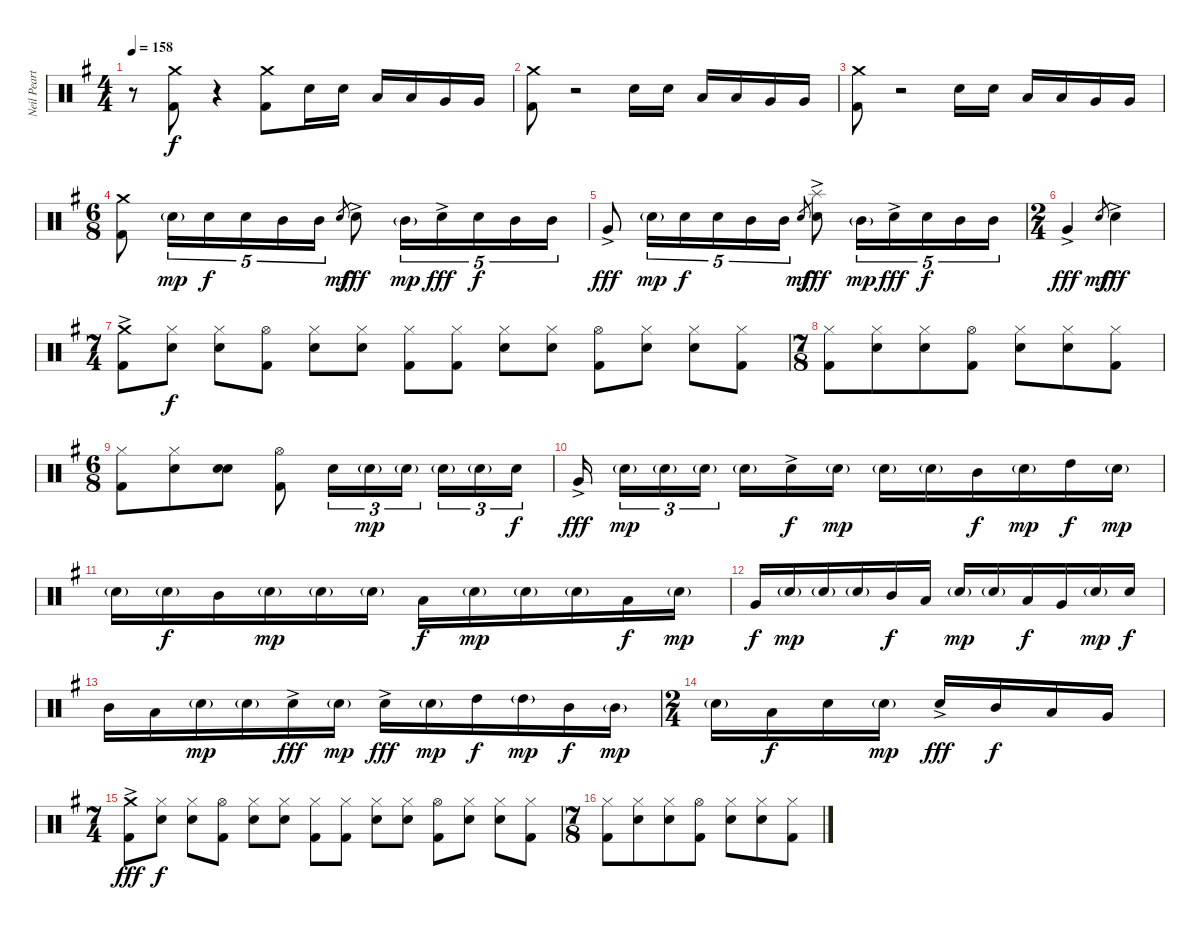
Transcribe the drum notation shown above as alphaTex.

\track ("Neil Peart (drums)" "Neil Peart") {instrument percussion}
\staff {score}
\articulation defaults
\ts (4 4)
\tempo 158
\clef neutral
\ks eminor
r.8{dy f} ("Crash medium (hit)" "Kick (hit) 2").8{volume 13} r.4{volume 0} ("Crash medium (hit)" "Kick (hit) 2").8{volume 13} "Electric Snare (hit)".16 "Electric Snare (hit)".16 "Low Tom (hit)".16 "Low Tom (hit)".16 "Very Low Tom (hit)".16 "Very Low Tom (hit)".16 |
("Crash medium (hit)" "Kick (hit) 2").8 r.2{volume 0} "Electric Snare (hit)".16{volume 13} "Electric Snare (hit)".16 "Low Tom (hit)".16 "Low Tom (hit)".16 "Very Low Tom (hit)".16 "Very Low Tom (hit)".16 |
("Crash medium (hit)" "Kick (hit) 2").8{volume 13} r.2{volume 0} "Electric Snare (hit)".16{volume 13} "Electric Snare (hit)".16 "Low Tom (hit)".16 "Low Tom (hit)".16 "Very Low Tom (hit)".16 "Very Low Tom (hit)".16 |
\ts (6 8)
("Crash medium (hit)" "Kick (hit) 2").8 "Electric Snare (hit)"{g}.16{tu (5 4) dy mp} "Electric Snare (hit)".16{tu (5 4) dy f} "Electric Snare (hit)".16{tu (5 4)} "Mid Tom (hit)".16{tu (5 4)} "Mid Tom (hit)".16{tu (5 4)} "Electric Snare (hit)".8{gr dy mf} "Electric Snare (hit)"{ac}.8{dy fff} "Mid Tom (hit)"{g}.16{tu (5 4) dy mp} "Electric Snare (hit)"{ac}.16{tu (5 4) dy fff} "Electric Snare (hit)".16{tu (5 4) dy f} "Mid Tom (hit)".16{tu (5 4)} "Mid Tom (hit)".16{tu (5 4)} |
"Very Low Tom (hit)"{ac}.8{dy fff} "Electric Snare (hit)"{g}.16{tu (5 4) dy mp} "Electric Snare (hit)".16{tu (5 4) dy f} "Electric Snare (hit)".16{tu (5 4)} "Mid Tom (hit)".16{tu (5 4)} "Mid Tom (hit)".16{tu (5 4)} "Electric Snare (hit)".8{gr dy mf} ("Splash (hit)" "Electric Snare (hit)"{ac}).8{dy fff} "Mid Tom (hit)"{g}.16{tu (5 4) dy mp} "Electric Snare (hit)"{ac}.16{tu (5 4) dy fff} "Electric Snare (hit)".16{tu (5 4) dy f} "Mid Tom (hit)".16{tu (5 4)} "Mid Tom (hit)".16{tu (5 4)} |
\ts (2 4)
"Very Low Tom (hit)"{ac}.4{dy fff} "Electric Snare (hit)".8{gr dy mf} "Electric Snare (hit)"{ac}.4{dy fff} |
\ts (7 4)
("Crash medium (hit)"{ac} "Kick (hit) 2").8 ("Hi-Hat (closed)" "Electric Snare (hit)").8{dy f} ("Hi-Hat (closed)" "Electric Snare (hit)").8 ("Hi-Hat (open)" "Kick (hit) 2").8 ("Hi-Hat (closed)" "Electric Snare (hit)").8 ("Hi-Hat (closed)" "Electric Snare (hit)").8 ("Hi-Hat (closed)" "Kick (hit) 2").8 ("Hi-Hat (closed)" "Kick (hit) 2").8 ("Hi-Hat (closed)" "Electric Snare (hit)").8 ("Hi-Hat (closed)" "Electric Snare (hit)").8 ("Hi-Hat (open)" "Kick (hit) 2").8 ("Hi-Hat (closed)" "Electric Snare (hit)").8 ("Hi-Hat (closed)" "Electric Snare (hit)").8 ("Hi-Hat (closed)" "Kick (hit) 2").8 |
\ts (7 8)
("Hi-Hat (closed)" "Kick (hit) 2").8 ("Hi-Hat (closed)" "Electric Snare (hit)").8 ("Hi-Hat (closed)" "Electric Snare (hit)").8 ("Hi-Hat (open)" "Kick (hit) 2").8 ("Hi-Hat (closed)" "Electric Snare (hit)").8 ("Hi-Hat (closed)" "Electric Snare (hit)").8 ("Hi-Hat (closed)" "Kick (hit) 2").8 |
\ts (6 8)
("Hi-Hat (closed)" "Kick (hit) 2").8 ("Hi-Hat (closed)" "Electric Snare (hit)").8 ("Snare (hit)" "Electric Snare (hit)").8 ("Hi-Hat (open)" "Kick (hit) 2").8 "Electric Snare (hit)".16{tu (3 2)} "Electric Snare (hit)"{g}.16{tu (3 2) dy mp} "Electric Snare (hit)"{g}.16{tu (3 2)} "Electric Snare (hit)"{g}.16{tu (3 2)} "Electric Snare (hit)"{g}.16{tu (3 2)} "Electric Snare (hit)".16{tu (3 2) dy f} |
"Very Low Tom (hit)"{ac}.16{dy fff} "Electric Snare (hit)"{g}.16{tu (3 2) dy mp} "Electric Snare (hit)"{g}.16{tu (3 2)} "Electric Snare (hit)"{g}.16{tu (3 2)} "Electric Snare (hit)"{g}.16 "Electric Snare (hit)"{ac}.16{dy f} "Electric Snare (hit)"{g}.16{dy mp} "Electric Snare (hit)"{g}.16 "Electric Snare (hit)"{g}.16 "Mid Tom (hit)".16{dy f} "Electric Snare (hit)"{g}.16{dy mp} "High Tom (hit)".16{dy f} "Electric Snare (hit)"{g}.16{dy mp} |
"Electric Snare (hit)"{g}.16 "Electric Snare (hit)"{g}.16{dy f} "Mid Tom (hit)".16 "Electric Snare (hit)"{g}.16{dy mp} "Electric Snare (hit)"{g}.16 "Electric Snare (hit)"{g}.16 "Low Tom (hit)".16{dy f} "Electric Snare (hit)"{g}.16{dy mp} "Electric Snare (hit)"{g}.16 "Electric Snare (hit)"{g}.16 "Low Tom (hit)".16{dy f} "Electric Snare (hit)"{g}.16{dy mp} |
"Very Low Tom (hit)".16{dy f} "Electric Snare (hit)"{g}.16{dy mp} "Electric Snare (hit)"{g}.16 "Electric Snare (hit)"{g}.16 "Mid Tom (hit)".16{dy f} "Low Tom (hit)".16 "Electric Snare (hit)"{g}.16{dy mp} "Electric Snare (hit)"{g}.16 "Low Tom (hit)".16{dy f} "Very Low Tom (hit)".16 "Electric Snare (hit)"{g}.16{dy mp} "Electric Snare (hit)".16{dy f} |
"Mid Tom (hit)".16 "Low Tom (hit)".16 "Electric Snare (hit)"{g}.16{dy mp} "Electric Snare (hit)"{g}.16 "Electric Snare (hit)"{ac}.16{dy fff} "Electric Snare (hit)"{g}.16{dy mp} "Electric Snare (hit)"{ac}.16{dy fff} "Electric Snare (hit)"{g}.16{dy mp} "High Tom (hit)".16{dy f} "High Tom (hit)"{g}.16{dy mp} "Mid Tom (hit)".16{dy f} "Mid Tom (hit)"{g}.16{dy mp} |
\ts (2 4)
"Electric Snare (hit)"{g}.16 "Low Tom (hit)".16{dy f} "Electric Snare (hit)".16 "Electric Snare (hit)"{g}.16{dy mp} "Electric Snare (hit)"{ac}.16{dy fff} "Mid Tom (hit)".16{dy f} "Low Tom (hit)".16 "Very Low Tom (hit)".16 |
\ts (7 4)
("Crash medium (hit)"{ac} "Kick (hit) 2").8{dy fff} ("Hi-Hat (closed)" "Electric Snare (hit)").8{dy f} ("Hi-Hat (closed)" "Electric Snare (hit)").8 ("Hi-Hat (open)" "Kick (hit) 2").8 ("Hi-Hat (closed)" "Electric Snare (hit)").8 ("Hi-Hat (closed)" "Electric Snare (hit)").8 ("Hi-Hat (closed)" "Kick (hit) 2").8 ("Hi-Hat (closed)" "Kick (hit) 2").8 ("Hi-Hat (closed)" "Electric Snare (hit)").8 ("Hi-Hat (closed)" "Electric Snare (hit)").8 ("Hi-Hat (open)" "Kick (hit) 2").8 ("Hi-Hat (closed)" "Electric Snare (hit)").8 ("Hi-Hat (closed)" "Electric Snare (hit)").8 ("Hi-Hat (closed)" "Kick (hit) 2").8 |
\ts (7 8)
("Hi-Hat (closed)" "Kick (hit) 2").8 ("Hi-Hat (closed)" "Electric Snare (hit)").8 ("Hi-Hat (closed)" "Electric Snare (hit)").8 ("Hi-Hat (open)" "Kick (hit) 2").8 ("Hi-Hat (closed)" "Electric Snare (hit)").8 ("Hi-Hat (closed)" "Electric Snare (hit)").8 ("Hi-Hat (closed)" "Kick (hit) 2").8
